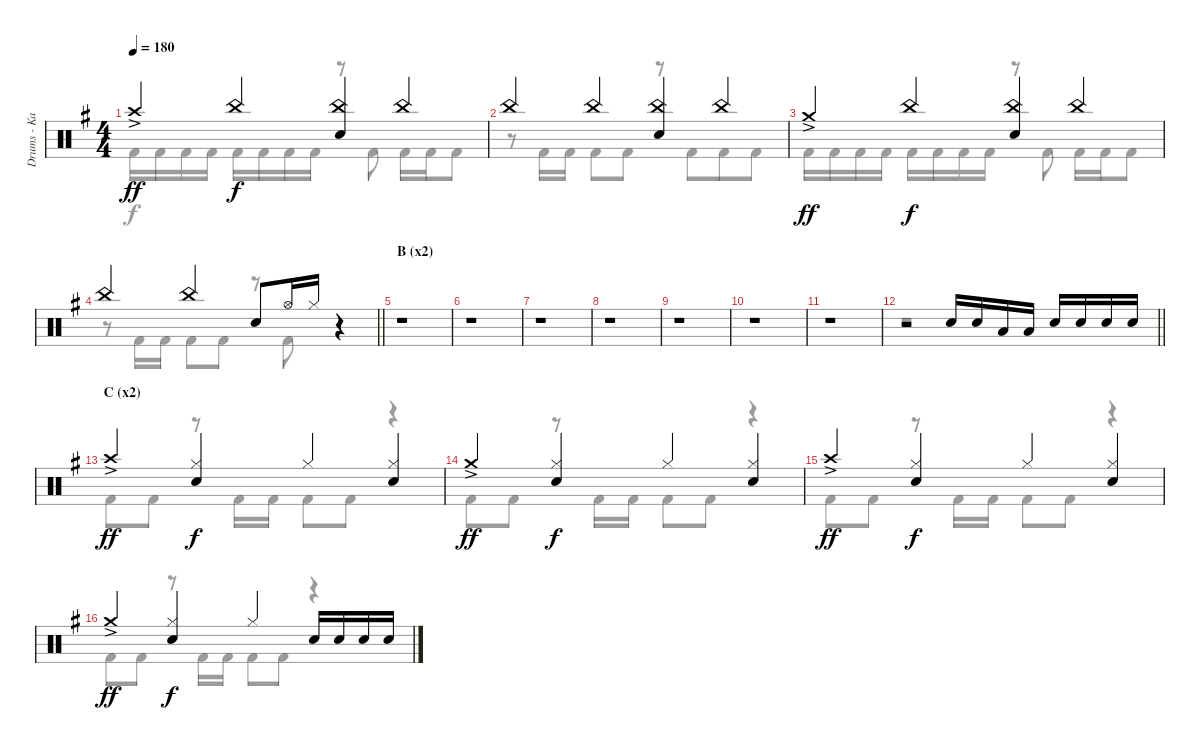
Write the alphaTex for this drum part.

\track ("Drums - Kai" "Drums - Ka") {instrument percussion}
\staff {score}
\articulation defaults
\voice
\ts (4 4)
\tempo 180
\clef neutral
\ks g "Crash high (hit)"{ac}.4{dy ff} "China (hit)".4{dy f}
("China (hit)" "Snare (hit) 2").4 "China (hit)".4 |
"China (hit)".4 "China (hit)".4 ("China (hit)" "Snare (hit) 2").4 "China (hit)".4 |
"Crash medium (hit)"{ac}.4{dy ff} "China (hit)".4{dy f} ("China (hit)" "Snare (hit) 2").4 "China (hit)".4 |
\barLineRight lightlight "China (hit)".4 "China (hit)".4 "Snare (hit) 2".8 "Hi-Hat (open)".16 "Hi-Hat (closed)".16
r.4 |
\section ("" "B (x2)")
r.1 |
r.1 |
r.1 |
r.1 |
r.1 |
r.1 |
r.1 |
\barLineRight lightlight
r.2 "Snare (hit) 2".16 "Snare (hit) 2".16 "Low Tom (hit)".16 "Low Tom (hit)".16 "Snare (hit) 2".16 "Snare (hit) 2".16 "Snare (hit) 2".16 "Snare (hit) 2".16 |
\section ("" "C (x2)")
"Crash high (hit)"{ac}.4{dy ff} ("Hi-Hat (closed)" "Snare (hit) 2").4{dy f} "Hi-Hat (closed)".4 ("Hi-Hat (closed)" "Snare (hit) 2").4 |
"Crash medium (hit)"{ac}.4{dy ff} ("Hi-Hat (closed)" "Snare (hit) 2").4{dy f} "Hi-Hat (closed)".4 ("Hi-Hat (closed)" "Snare (hit) 2").4 |
"Crash high (hit)"{ac}.4{dy ff} ("Hi-Hat (closed)" "Snare (hit) 2").4{dy f} "Hi-Hat (closed)".4 ("Hi-Hat (closed)" "Snare (hit) 2").4 |
"Crash medium (hit)"{ac}.4{dy ff} ("Hi-Hat (closed)" "Snare (hit) 2").4{dy f} "Hi-Hat (closed)".4 "Snare (hit) 2".16 "Snare (hit) 2".16 "Snare (hit) 2".16 "Snare (hit) 2".16
\voice
\clef neutral
\ottava regular
\simile none
\ks g "Kick (hit) 2".16{dy f} "Kick (hit) 2".16 "Kick (hit) 2".16 "Kick (hit) 2".16 "Kick (hit) 2".16 "Kick (hit) 2".16 "Kick (hit) 2".16 "Kick (hit) 2".16
r.8 "Kick (hit) 2".8 "Kick (hit) 2".16 "Kick (hit) 2".16 "Kick (hit) 2".8 |
r.8 "Kick (hit) 2".16 "Kick (hit) 2".16 "Kick (hit) 2".8 "Kick (hit) 2".8 r.8 "Kick (hit) 2".8{beam merge} "Kick (hit) 2".8 "Kick (hit) 2".8 |
"Kick (hit) 2".16 "Kick (hit) 2".16 "Kick (hit) 2".16 "Kick (hit) 2".16 "Kick (hit) 2".16 "Kick (hit) 2".16 "Kick (hit) 2".16 "Kick (hit) 2".16 r.8 "Kick (hit) 2".8 "Kick (hit) 2".16 "Kick (hit) 2".16 "Kick (hit) 2".8 |
\barLineRight lightlight
r.8 "Kick (hit) 2".16 "Kick (hit) 2".16 "Kick (hit) 2".8 "Kick (hit) 2".8 r.8 "Kick (hit) 2".8 r.4 |
|
|
|
|
|
|
|
\barLineRight lightlight
r.1 |
"Kick (hit) 2".8 "Kick (hit) 2".8 r.8 "Kick (hit) 2".16 "Kick (hit) 2".16 "Kick (hit) 2".8 "Kick (hit) 2".8 r.4 |
"Kick (hit) 2".8 "Kick (hit) 2".8 r.8 "Kick (hit) 2".16 "Kick (hit) 2".16 "Kick (hit) 2".8 "Kick (hit) 2".8 r.4 |
"Kick (hit) 2".8 "Kick (hit) 2".8 r.8 "Kick (hit) 2".16 "Kick (hit) 2".16 "Kick (hit) 2".8 "Kick (hit) 2".8 r.4 |
"Kick (hit) 2".8 "Kick (hit) 2".8 r.8 "Kick (hit) 2".16 "Kick (hit) 2".16 "Kick (hit) 2".8 "Kick (hit) 2".8 r.4
